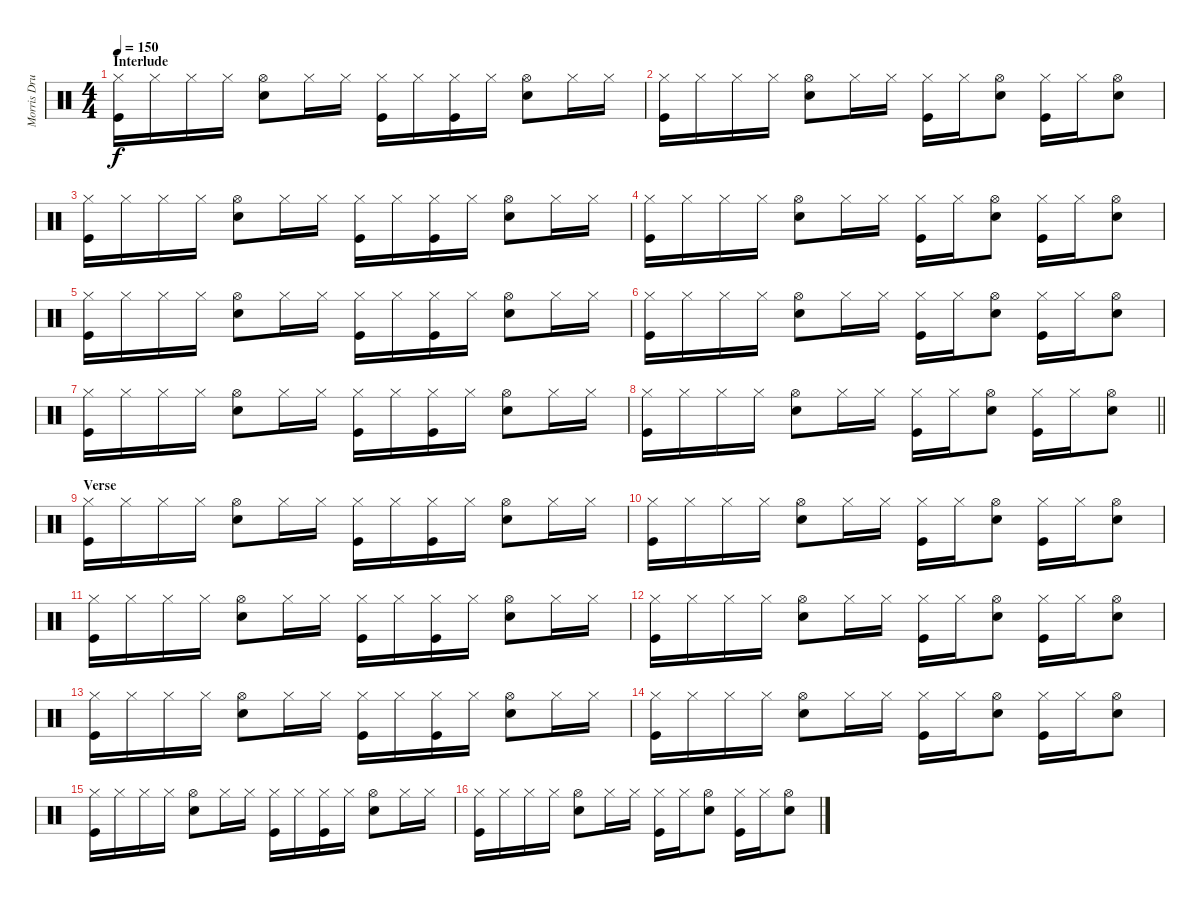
\track ("Morris Drums" "Morris Dru") {instrument percussion}
\staff {score}
\articulation defaults
\ts (4 4)
\section ("" "Interlude")
\tempo 150
\clef neutral
\ks c
("Hi-Hat (closed)" "Kick (hit)").16{dy f} "Hi-Hat (closed)".16 "Hi-Hat (closed)".16 "Hi-Hat (closed)".16 ("Hi-Hat (open)" "Snare (hit) 2").8 "Hi-Hat (closed)".16 "Hi-Hat (closed)".16 ("Hi-Hat (closed)" "Kick (hit)").16 "Hi-Hat (closed)".16 ("Hi-Hat (closed)" "Kick (hit)").16 "Hi-Hat (closed)".16 ("Hi-Hat (open)" "Snare (hit) 2").8 "Hi-Hat (closed)".16 "Hi-Hat (closed)".16 |
("Hi-Hat (closed)" "Kick (hit)").16 "Hi-Hat (closed)".16 "Hi-Hat (closed)".16 "Hi-Hat (closed)".16 ("Hi-Hat (open)" "Snare (hit) 2").8 "Hi-Hat (closed)".16 "Hi-Hat (closed)".16 ("Hi-Hat (closed)" "Kick (hit)").16 "Hi-Hat (closed)".16 ("Hi-Hat (open)" "Snare (hit) 2").8 ("Hi-Hat (closed)" "Kick (hit)").16 "Hi-Hat (closed)".16 ("Hi-Hat (open)" "Snare (hit) 2").8 |
("Hi-Hat (closed)" "Kick (hit)").16 "Hi-Hat (closed)".16 "Hi-Hat (closed)".16 "Hi-Hat (closed)".16 ("Hi-Hat (open)" "Snare (hit) 2").8 "Hi-Hat (closed)".16 "Hi-Hat (closed)".16 ("Hi-Hat (closed)" "Kick (hit)").16 "Hi-Hat (closed)".16 ("Hi-Hat (closed)" "Kick (hit)").16 "Hi-Hat (closed)".16 ("Hi-Hat (open)" "Snare (hit) 2").8 "Hi-Hat (closed)".16 "Hi-Hat (closed)".16 |
("Hi-Hat (closed)" "Kick (hit)").16 "Hi-Hat (closed)".16 "Hi-Hat (closed)".16 "Hi-Hat (closed)".16 ("Hi-Hat (open)" "Snare (hit) 2").8 "Hi-Hat (closed)".16 "Hi-Hat (closed)".16 ("Hi-Hat (closed)" "Kick (hit)").16 "Hi-Hat (closed)".16 ("Hi-Hat (open)" "Snare (hit) 2").8 ("Hi-Hat (closed)" "Kick (hit)").16 "Hi-Hat (closed)".16 ("Hi-Hat (open)" "Snare (hit) 2").8 |
("Hi-Hat (closed)" "Kick (hit)").16 "Hi-Hat (closed)".16 "Hi-Hat (closed)".16 "Hi-Hat (closed)".16 ("Hi-Hat (open)" "Snare (hit) 2").8 "Hi-Hat (closed)".16 "Hi-Hat (closed)".16 ("Hi-Hat (closed)" "Kick (hit)").16 "Hi-Hat (closed)".16 ("Hi-Hat (closed)" "Kick (hit)").16 "Hi-Hat (closed)".16 ("Hi-Hat (open)" "Snare (hit) 2").8 "Hi-Hat (closed)".16 "Hi-Hat (closed)".16 |
("Hi-Hat (closed)" "Kick (hit)").16 "Hi-Hat (closed)".16 "Hi-Hat (closed)".16 "Hi-Hat (closed)".16 ("Hi-Hat (open)" "Snare (hit) 2").8 "Hi-Hat (closed)".16 "Hi-Hat (closed)".16 ("Hi-Hat (closed)" "Kick (hit)").16 "Hi-Hat (closed)".16 ("Hi-Hat (open)" "Snare (hit) 2").8 ("Hi-Hat (closed)" "Kick (hit)").16 "Hi-Hat (closed)".16 ("Hi-Hat (open)" "Snare (hit) 2").8 |
("Hi-Hat (closed)" "Kick (hit)").16 "Hi-Hat (closed)".16 "Hi-Hat (closed)".16 "Hi-Hat (closed)".16 ("Hi-Hat (open)" "Snare (hit) 2").8 "Hi-Hat (closed)".16 "Hi-Hat (closed)".16 ("Hi-Hat (closed)" "Kick (hit)").16 "Hi-Hat (closed)".16 ("Hi-Hat (closed)" "Kick (hit)").16 "Hi-Hat (closed)".16 ("Hi-Hat (open)" "Snare (hit) 2").8 "Hi-Hat (closed)".16 "Hi-Hat (closed)".16 |
\barLineRight lightlight
("Hi-Hat (closed)" "Kick (hit)").16 "Hi-Hat (closed)".16 "Hi-Hat (closed)".16 "Hi-Hat (closed)".16 ("Hi-Hat (open)" "Snare (hit) 2").8 "Hi-Hat (closed)".16 "Hi-Hat (closed)".16 ("Hi-Hat (closed)" "Kick (hit)").16 "Hi-Hat (closed)".16 ("Hi-Hat (open)" "Snare (hit) 2").8 ("Hi-Hat (closed)" "Kick (hit)").16 "Hi-Hat (closed)".16 ("Hi-Hat (open)" "Snare (hit) 2").8 |
\section ("" "Verse")
("Hi-Hat (closed)" "Kick (hit)").16 "Hi-Hat (closed)".16 "Hi-Hat (closed)".16 "Hi-Hat (closed)".16 ("Hi-Hat (open)" "Snare (hit) 2").8 "Hi-Hat (closed)".16 "Hi-Hat (closed)".16 ("Hi-Hat (closed)" "Kick (hit)").16 "Hi-Hat (closed)".16 ("Hi-Hat (closed)" "Kick (hit)").16 "Hi-Hat (closed)".16 ("Hi-Hat (open)" "Snare (hit) 2").8 "Hi-Hat (closed)".16 "Hi-Hat (closed)".16 |
("Hi-Hat (closed)" "Kick (hit)").16 "Hi-Hat (closed)".16 "Hi-Hat (closed)".16 "Hi-Hat (closed)".16 ("Hi-Hat (open)" "Snare (hit) 2").8 "Hi-Hat (closed)".16 "Hi-Hat (closed)".16 ("Hi-Hat (closed)" "Kick (hit)").16 "Hi-Hat (closed)".16 ("Hi-Hat (open)" "Snare (hit) 2").8 ("Hi-Hat (closed)" "Kick (hit)").16 "Hi-Hat (closed)".16 ("Hi-Hat (open)" "Snare (hit) 2").8 |
("Hi-Hat (closed)" "Kick (hit)").16 "Hi-Hat (closed)".16 "Hi-Hat (closed)".16 "Hi-Hat (closed)".16 ("Hi-Hat (open)" "Snare (hit) 2").8 "Hi-Hat (closed)".16 "Hi-Hat (closed)".16 ("Hi-Hat (closed)" "Kick (hit)").16 "Hi-Hat (closed)".16 ("Hi-Hat (closed)" "Kick (hit)").16 "Hi-Hat (closed)".16 ("Hi-Hat (open)" "Snare (hit) 2").8 "Hi-Hat (closed)".16 "Hi-Hat (closed)".16 |
("Hi-Hat (closed)" "Kick (hit)").16 "Hi-Hat (closed)".16 "Hi-Hat (closed)".16 "Hi-Hat (closed)".16 ("Hi-Hat (open)" "Snare (hit) 2").8 "Hi-Hat (closed)".16 "Hi-Hat (closed)".16 ("Hi-Hat (closed)" "Kick (hit)").16 "Hi-Hat (closed)".16 ("Hi-Hat (open)" "Snare (hit) 2").8 ("Hi-Hat (closed)" "Kick (hit)").16 "Hi-Hat (closed)".16 ("Hi-Hat (open)" "Snare (hit) 2").8 |
("Hi-Hat (closed)" "Kick (hit)").16 "Hi-Hat (closed)".16 "Hi-Hat (closed)".16 "Hi-Hat (closed)".16 ("Hi-Hat (open)" "Snare (hit) 2").8 "Hi-Hat (closed)".16 "Hi-Hat (closed)".16 ("Hi-Hat (closed)" "Kick (hit)").16 "Hi-Hat (closed)".16 ("Hi-Hat (closed)" "Kick (hit)").16 "Hi-Hat (closed)".16 ("Hi-Hat (open)" "Snare (hit) 2").8 "Hi-Hat (closed)".16 "Hi-Hat (closed)".16 |
("Hi-Hat (closed)" "Kick (hit)").16 "Hi-Hat (closed)".16 "Hi-Hat (closed)".16 "Hi-Hat (closed)".16 ("Hi-Hat (open)" "Snare (hit) 2").8 "Hi-Hat (closed)".16 "Hi-Hat (closed)".16 ("Hi-Hat (closed)" "Kick (hit)").16 "Hi-Hat (closed)".16 ("Hi-Hat (open)" "Snare (hit) 2").8 ("Hi-Hat (closed)" "Kick (hit)").16 "Hi-Hat (closed)".16 ("Hi-Hat (open)" "Snare (hit) 2").8 |
("Hi-Hat (closed)" "Kick (hit)").16 "Hi-Hat (closed)".16 "Hi-Hat (closed)".16 "Hi-Hat (closed)".16 ("Hi-Hat (open)" "Snare (hit) 2").8 "Hi-Hat (closed)".16 "Hi-Hat (closed)".16 ("Hi-Hat (closed)" "Kick (hit)").16 "Hi-Hat (closed)".16 ("Hi-Hat (closed)" "Kick (hit)").16 "Hi-Hat (closed)".16 ("Hi-Hat (open)" "Snare (hit) 2").8 "Hi-Hat (closed)".16 "Hi-Hat (closed)".16 |
("Hi-Hat (closed)" "Kick (hit)").16 "Hi-Hat (closed)".16 "Hi-Hat (closed)".16 "Hi-Hat (closed)".16 ("Hi-Hat (open)" "Snare (hit) 2").8 "Hi-Hat (closed)".16 "Hi-Hat (closed)".16 ("Hi-Hat (closed)" "Kick (hit)").16 "Hi-Hat (closed)".16 ("Hi-Hat (open)" "Snare (hit) 2").8 ("Hi-Hat (closed)" "Kick (hit)").16 "Hi-Hat (closed)".16 ("Hi-Hat (open)" "Snare (hit) 2").8
